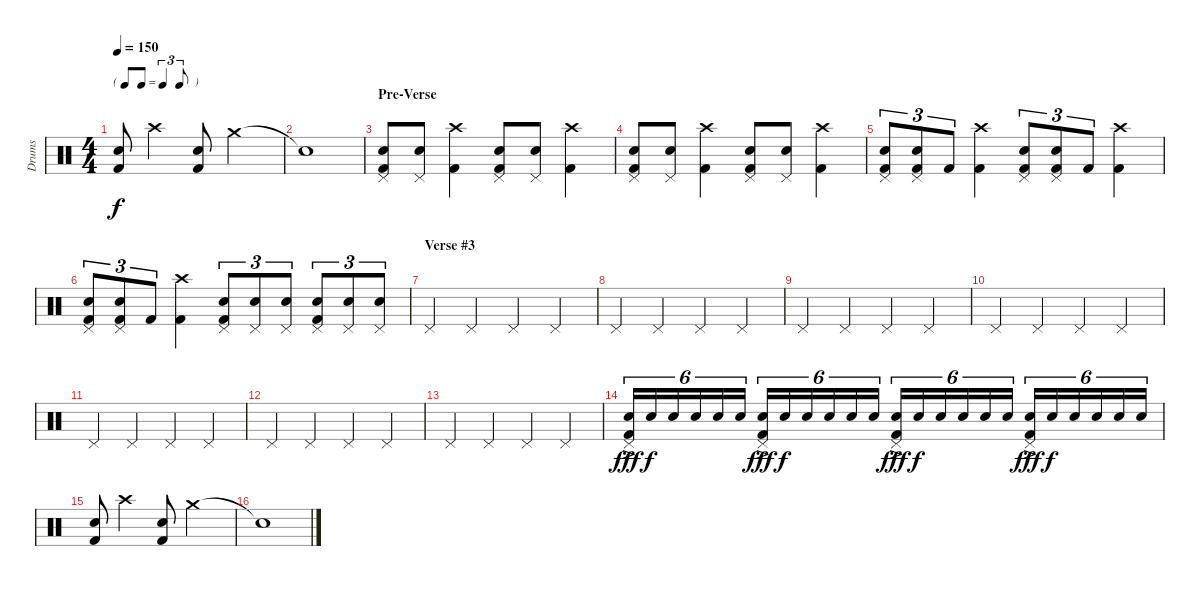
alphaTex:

\track ("Drums" "Drums") {instrument percussion}
\staff {score}
\articulation defaults
\ts (4 4)
\tf triplet8th
\tempo 150
\clef neutral
\ks c
("Snare (hit) 2" "Kick (hit) 2").8{dy f} "Crash high (hit)".4 ("Snare (hit) 2" "Kick (hit) 2").8 "Crash medium (hit)".2 |
"Snare (hit)"{t}.1 |
\section ("" "Pre-Verse")
("Pedal Hi-Hat (hit)" "Snare (hit) 2" "Kick (hit) 2").8 ("Pedal Hi-Hat (hit)" "Snare (hit) 2").8 ("Crash high (hit)" "Kick (hit) 2").4 ("Pedal Hi-Hat (hit)" "Snare (hit) 2" "Kick (hit) 2").8 ("Pedal Hi-Hat (hit)" "Snare (hit) 2").8 ("Crash high (hit)" "Kick (hit) 2").4 |
("Pedal Hi-Hat (hit)" "Snare (hit) 2" "Kick (hit) 2").8 ("Pedal Hi-Hat (hit)" "Snare (hit) 2").8 ("Crash high (hit)" "Kick (hit) 2").4 ("Pedal Hi-Hat (hit)" "Snare (hit) 2" "Kick (hit) 2").8 ("Pedal Hi-Hat (hit)" "Snare (hit) 2").8 ("Crash high (hit)" "Kick (hit) 2").4 |
("Pedal Hi-Hat (hit)" "Snare (hit) 2" "Kick (hit) 2").8{tu (3 2)} ("Pedal Hi-Hat (hit)" "Snare (hit) 2" "Kick (hit) 2").8{tu (3 2)} "Kick (hit) 2".8{tu (3 2)} ("Crash high (hit)" "Kick (hit) 2").4 ("Pedal Hi-Hat (hit)" "Snare (hit) 2" "Kick (hit) 2").8{tu (3 2)} ("Pedal Hi-Hat (hit)" "Snare (hit) 2" "Kick (hit) 2").8{tu (3 2)} "Kick (hit) 2".8{tu (3 2)} ("Crash high (hit)" "Kick (hit) 2").4 |
("Pedal Hi-Hat (hit)" "Snare (hit) 2" "Kick (hit) 2").8{tu (3 2)} ("Pedal Hi-Hat (hit)" "Snare (hit) 2" "Kick (hit) 2").8{tu (3 2)} "Kick (hit) 2".8{tu (3 2)} ("Crash high (hit)" "Kick (hit) 2").4 ("Pedal Hi-Hat (hit)" "Snare (hit) 2" "Kick (hit) 2").8{tu (3 2)} ("Pedal Hi-Hat (hit)" "Electric Snare (hit)").8{tu (3 2)} ("Pedal Hi-Hat (hit)" "Snare (hit) 2").8{tu (3 2)} ("Pedal Hi-Hat (hit)" "Snare (hit) 2" "Kick (hit) 2").8{tu (3 2)} ("Pedal Hi-Hat (hit)" "Electric Snare (hit)").8{tu (3 2)} ("Pedal Hi-Hat (hit)" "Snare (hit) 2").8{tu (3 2)} |
\section ("" "Verse #3")
"Pedal Hi-Hat (hit)".4 "Pedal Hi-Hat (hit)".4 "Pedal Hi-Hat (hit)".4 "Pedal Hi-Hat (hit)".4 |
"Pedal Hi-Hat (hit)".4 "Pedal Hi-Hat (hit)".4 "Pedal Hi-Hat (hit)".4 "Pedal Hi-Hat (hit)".4 |
"Pedal Hi-Hat (hit)".4 "Pedal Hi-Hat (hit)".4 "Pedal Hi-Hat (hit)".4 "Pedal Hi-Hat (hit)".4 |
"Pedal Hi-Hat (hit)".4 "Pedal Hi-Hat (hit)".4 "Pedal Hi-Hat (hit)".4 "Pedal Hi-Hat (hit)".4 |
"Pedal Hi-Hat (hit)".4 "Pedal Hi-Hat (hit)".4 "Pedal Hi-Hat (hit)".4 "Pedal Hi-Hat (hit)".4 |
"Pedal Hi-Hat (hit)".4 "Pedal Hi-Hat (hit)".4 "Pedal Hi-Hat (hit)".4 "Pedal Hi-Hat (hit)".4 |
"Pedal Hi-Hat (hit)".4 "Pedal Hi-Hat (hit)".4 "Pedal Hi-Hat (hit)".4 "Pedal Hi-Hat (hit)".4 |
("Pedal Hi-Hat (hit)" "Snare (hit) 2"{ac} "Kick (hit) 2"{ac}).16{tu (6 4) dy fff} "Snare (hit) 2".16{tu (6 4) dy f} "Snare (hit) 2".16{tu (6 4)} "Snare (hit) 2".16{tu (6 4)} "Snare (hit) 2".16{tu (6 4)} "Snare (hit) 2".16{tu (6 4)} ("Pedal Hi-Hat (hit)" "Snare (hit) 2"{ac} "Kick (hit) 2"{ac}).16{tu (6 4) dy fff} "Snare (hit) 2".16{tu (6 4) dy f} "Snare (hit) 2".16{tu (6 4)} "Snare (hit) 2".16{tu (6 4)} "Snare (hit) 2".16{tu (6 4)} "Snare (hit) 2".16{tu (6 4)} ("Pedal Hi-Hat (hit)" "Snare (hit) 2"{ac} "Kick (hit) 2"{ac}).16{tu (6 4) dy fff} "Snare (hit) 2".16{tu (6 4) dy f} "Snare (hit) 2".16{tu (6 4)} "Snare (hit) 2".16{tu (6 4)} "Snare (hit) 2".16{tu (6 4)} "Snare (hit) 2".16{tu (6 4)} ("Pedal Hi-Hat (hit)" "Snare (hit) 2"{ac} "Kick (hit) 2"{ac}).16{tu (6 4) dy fff} "Snare (hit) 2".16{tu (6 4) dy f} "Snare (hit) 2".16{tu (6 4)} "Snare (hit) 2".16{tu (6 4)} "Snare (hit) 2".16{tu (6 4)} "Snare (hit) 2".16{tu (6 4)} |
("Snare (hit) 2" "Kick (hit) 2").8 "Crash high (hit)".4 ("Snare (hit) 2" "Kick (hit) 2").8 "Crash medium (hit)".2 |
"Snare (hit)"{t}.1
